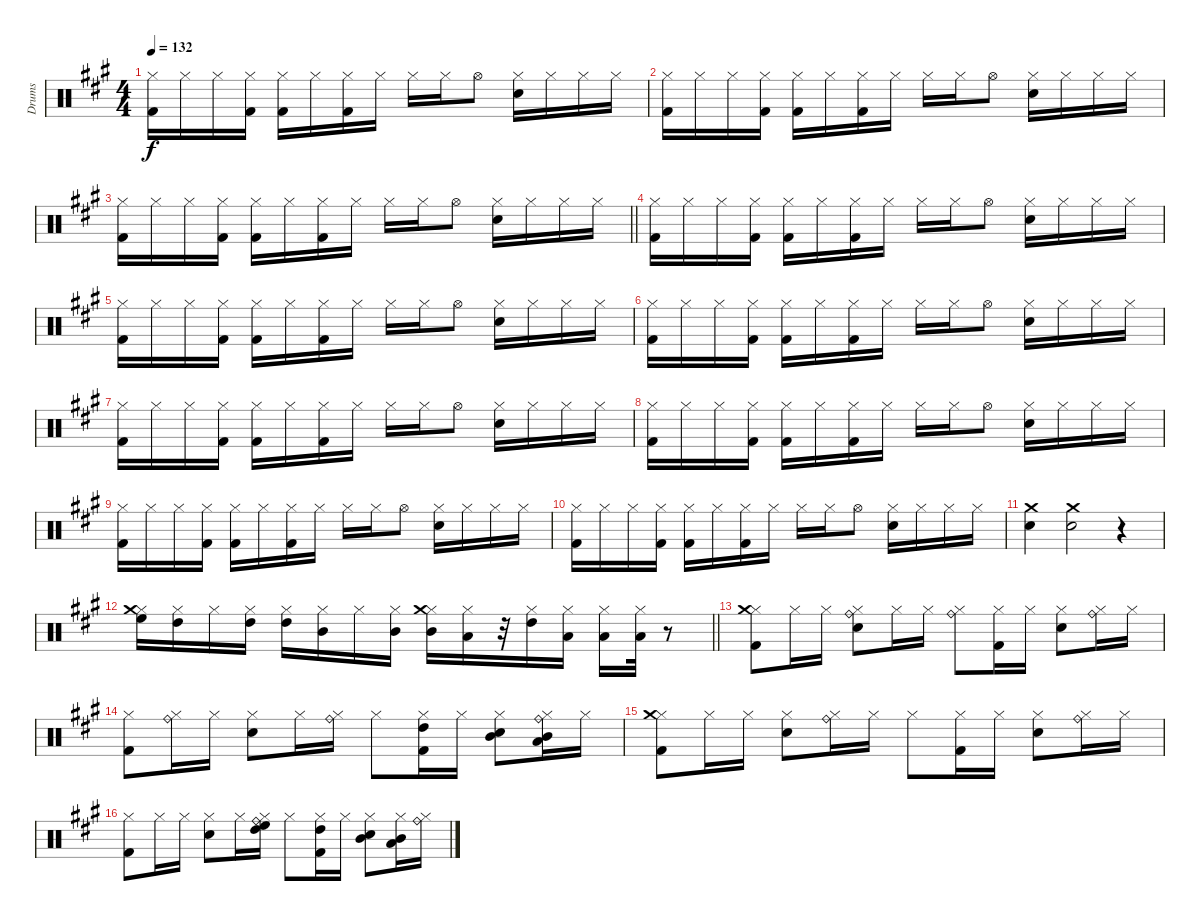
\track ("Drums" "Drums") {instrument percussion}
\staff {score}
\articulation defaults
\ts (4 4)
\tempo 132
\clef neutral
\ks a
("Kick (hit) 2" "Hi-Hat (closed)").16{dy f} "Hi-Hat (closed)".16 "Hi-Hat (closed)".16 ("Kick (hit) 2" "Hi-Hat (closed)").16 ("Kick (hit) 2" "Hi-Hat (closed)").16 "Hi-Hat (closed)".16 ("Kick (hit) 2" "Hi-Hat (closed)").16 "Hi-Hat (closed)".16 "Hi-Hat (closed)".16 "Hi-Hat (closed)".16 "Hi-Hat (open)".8 ("Snare (hit) 2" "Hi-Hat (closed)").16 "Hi-Hat (closed)".16 "Hi-Hat (closed)".16 "Hi-Hat (closed)".16 |
("Kick (hit) 2" "Hi-Hat (closed)").16 "Hi-Hat (closed)".16 "Hi-Hat (closed)".16 ("Kick (hit) 2" "Hi-Hat (closed)").16 ("Kick (hit) 2" "Hi-Hat (closed)").16 "Hi-Hat (closed)".16 ("Kick (hit) 2" "Hi-Hat (closed)").16 "Hi-Hat (closed)".16 "Hi-Hat (closed)".16 "Hi-Hat (closed)".16 "Hi-Hat (open)".8 ("Snare (hit) 2" "Hi-Hat (closed)").16 "Hi-Hat (closed)".16 "Hi-Hat (closed)".16 "Hi-Hat (closed)".16 |
\barLineRight lightlight
("Kick (hit) 2" "Hi-Hat (closed)").16 "Hi-Hat (closed)".16 "Hi-Hat (closed)".16 ("Kick (hit) 2" "Hi-Hat (closed)").16 ("Kick (hit) 2" "Hi-Hat (closed)").16 "Hi-Hat (closed)".16 ("Kick (hit) 2" "Hi-Hat (closed)").16 "Hi-Hat (closed)".16 "Hi-Hat (closed)".16 "Hi-Hat (closed)".16 "Hi-Hat (open)".8 ("Snare (hit) 2" "Hi-Hat (closed)").16 "Hi-Hat (closed)".16 "Hi-Hat (closed)".16 "Hi-Hat (closed)".16 |
("Kick (hit) 2" "Hi-Hat (closed)").16 "Hi-Hat (closed)".16 "Hi-Hat (closed)".16 ("Kick (hit) 2" "Hi-Hat (closed)").16 ("Kick (hit) 2" "Hi-Hat (closed)").16 "Hi-Hat (closed)".16 ("Kick (hit) 2" "Hi-Hat (closed)").16 "Hi-Hat (closed)".16 "Hi-Hat (closed)".16 "Hi-Hat (closed)".16 "Hi-Hat (open)".8 ("Snare (hit) 2" "Hi-Hat (closed)").16 "Hi-Hat (closed)".16 "Hi-Hat (closed)".16 "Hi-Hat (closed)".16 |
("Kick (hit) 2" "Hi-Hat (closed)").16 "Hi-Hat (closed)".16 "Hi-Hat (closed)".16 ("Kick (hit) 2" "Hi-Hat (closed)").16 ("Kick (hit) 2" "Hi-Hat (closed)").16 "Hi-Hat (closed)".16 ("Kick (hit) 2" "Hi-Hat (closed)").16 "Hi-Hat (closed)".16 "Hi-Hat (closed)".16 "Hi-Hat (closed)".16 "Hi-Hat (open)".8 ("Snare (hit) 2" "Hi-Hat (closed)").16 "Hi-Hat (closed)".16 "Hi-Hat (closed)".16 "Hi-Hat (closed)".16 |
("Kick (hit) 2" "Hi-Hat (closed)").16 "Hi-Hat (closed)".16 "Hi-Hat (closed)".16 ("Kick (hit) 2" "Hi-Hat (closed)").16 ("Kick (hit) 2" "Hi-Hat (closed)").16 "Hi-Hat (closed)".16 ("Kick (hit) 2" "Hi-Hat (closed)").16 "Hi-Hat (closed)".16 "Hi-Hat (closed)".16 "Hi-Hat (closed)".16 "Hi-Hat (open)".8 ("Snare (hit) 2" "Hi-Hat (closed)").16 "Hi-Hat (closed)".16 "Hi-Hat (closed)".16 "Hi-Hat (closed)".16 |
("Kick (hit) 2" "Hi-Hat (closed)").16 "Hi-Hat (closed)".16 "Hi-Hat (closed)".16 ("Kick (hit) 2" "Hi-Hat (closed)").16 ("Kick (hit) 2" "Hi-Hat (closed)").16 "Hi-Hat (closed)".16 ("Kick (hit) 2" "Hi-Hat (closed)").16 "Hi-Hat (closed)".16 "Hi-Hat (closed)".16 "Hi-Hat (closed)".16 "Hi-Hat (open)".8 ("Snare (hit) 2" "Hi-Hat (closed)").16 "Hi-Hat (closed)".16 "Hi-Hat (closed)".16 "Hi-Hat (closed)".16 |
("Kick (hit) 2" "Hi-Hat (closed)").16 "Hi-Hat (closed)".16 "Hi-Hat (closed)".16 ("Kick (hit) 2" "Hi-Hat (closed)").16 ("Kick (hit) 2" "Hi-Hat (closed)").16 "Hi-Hat (closed)".16 ("Kick (hit) 2" "Hi-Hat (closed)").16 "Hi-Hat (closed)".16 "Hi-Hat (closed)".16 "Hi-Hat (closed)".16 "Hi-Hat (open)".8 ("Snare (hit) 2" "Hi-Hat (closed)").16 "Hi-Hat (closed)".16 "Hi-Hat (closed)".16 "Hi-Hat (closed)".16 |
("Kick (hit) 2" "Hi-Hat (closed)").16 "Hi-Hat (closed)".16 "Hi-Hat (closed)".16 ("Kick (hit) 2" "Hi-Hat (closed)").16 ("Kick (hit) 2" "Hi-Hat (closed)").16 "Hi-Hat (closed)".16 ("Kick (hit) 2" "Hi-Hat (closed)").16 "Hi-Hat (closed)".16 "Hi-Hat (closed)".16 "Hi-Hat (closed)".16 "Hi-Hat (open)".8 ("Snare (hit) 2" "Hi-Hat (closed)").16 "Hi-Hat (closed)".16 "Hi-Hat (closed)".16 "Hi-Hat (closed)".16 |
("Kick (hit) 2" "Hi-Hat (closed)").16 "Hi-Hat (closed)".16 "Hi-Hat (closed)".16 ("Kick (hit) 2" "Hi-Hat (closed)").16 ("Kick (hit) 2" "Hi-Hat (closed)").16 "Hi-Hat (closed)".16 ("Kick (hit) 2" "Hi-Hat (closed)").16 "Hi-Hat (closed)".16 "Hi-Hat (closed)".16 "Hi-Hat (closed)".16 "Hi-Hat (open)".8 ("Snare (hit) 2" "Hi-Hat (closed)").16 "Hi-Hat (closed)".16 "Hi-Hat (closed)".16 "Hi-Hat (closed)".16 |
("Snare (hit) 2" "Crash medium (hit)").4 ("Snare (hit) 2" "Crash medium (hit)").2 r.4 |
\barLineRight lightlight
("Hi-Hat (closed)" "High Floor Tom (hit)" "Crash medium (hit)").16 ("Hi-Hat (closed)" "High Tom (hit)").16 "Hi-Hat (closed)".16 ("Hi-Hat (closed)" "High Tom (hit)").16 ("Hi-Hat (closed)" "High Tom (hit)").16 ("Hi-Hat (closed)" "Mid Tom (hit)").16 "Hi-Hat (closed)".16 ("Hi-Hat (closed)" "Mid Tom (hit)").16 ("Hi-Hat (closed)" "Mid Tom (hit)" "Crash medium (hit)").16 ("Hi-Hat (closed)" "Low Tom (hit)").16 r.32 ("Hi-Hat (closed)" "High Tom (hit)").16 ("Hi-Hat (closed)" "Low Tom (hit)").16 ("Hi-Hat (closed)" "Low Tom (hit)").16 ("Hi-Hat (closed)" "Low Tom (hit)").32 r.8 |
("Kick (hit) 2" "Hi-Hat (closed)" "Crash medium (hit)").8 "Hi-Hat (closed)".16 "Hi-Hat (closed)".16 ("Snare (hit) 2" "Hi-Hat (closed)" "Ride (bell)").8 "Hi-Hat (closed)".16 "Hi-Hat (closed)".16 ("Hi-Hat (closed)" "Ride (bell)").8 ("Kick (hit) 2" "Hi-Hat (closed)").16 "Hi-Hat (closed)".16 ("Snare (hit) 2" "Hi-Hat (closed)").8 ("Hi-Hat (closed)" "Ride (bell)").16 "Hi-Hat (closed)".16 |
("Kick (hit) 2" "Hi-Hat (closed)").8 ("Hi-Hat (closed)" "Ride (bell)").16 "Hi-Hat (closed)".16 ("Snare (hit) 2" "Hi-Hat (closed)").8 "Hi-Hat (closed)".16 ("Hi-Hat (closed)" "Ride (bell)").16 "Hi-Hat (closed)".8 ("Kick (hit) 2" "Hi-Hat (closed)" "High Tom (hit)").16 "Hi-Hat (closed)".16 ("Snare (hit) 2" "Hi-Hat (closed)" "Mid Tom (hit)").8 ("Hi-Hat (closed)" "Low Tom (hit)" "Mid Tom (hit)" "Ride (bell)").16 "Hi-Hat (closed)".16 |
("Kick (hit) 2" "Hi-Hat (closed)" "Crash medium (hit)").8 "Hi-Hat (closed)".16 "Hi-Hat (closed)".16 ("Snare (hit) 2" "Hi-Hat (closed)").8 ("Hi-Hat (closed)" "Ride (bell)").16 "Hi-Hat (closed)".16 "Hi-Hat (closed)".8 ("Kick (hit) 2" "Hi-Hat (closed)").16 "Hi-Hat (closed)".16 ("Snare (hit) 2" "Hi-Hat (closed)").8 ("Hi-Hat (closed)" "Ride (bell)").16 "Hi-Hat (closed)".16 |
("Kick (hit) 2" "Hi-Hat (closed)").8 "Hi-Hat (closed)".16 "Hi-Hat (closed)".16 ("Snare (hit) 2" "Hi-Hat (closed)").8 "Hi-Hat (closed)".16 ("Hi-Hat (closed)" "High Tom (hit)" "High Floor Tom (hit)" "Ride (bell)").16 "Hi-Hat (closed)".8 ("Kick (hit) 2" "Hi-Hat (closed)" "High Tom (hit)").16 "Hi-Hat (closed)".16 ("Snare (hit) 2" "Hi-Hat (closed)" "Mid Tom (hit)").8 ("Hi-Hat (closed)" "Low Tom (hit)" "Mid Tom (hit)").16 ("Hi-Hat (closed)" "Ride (bell)").16
